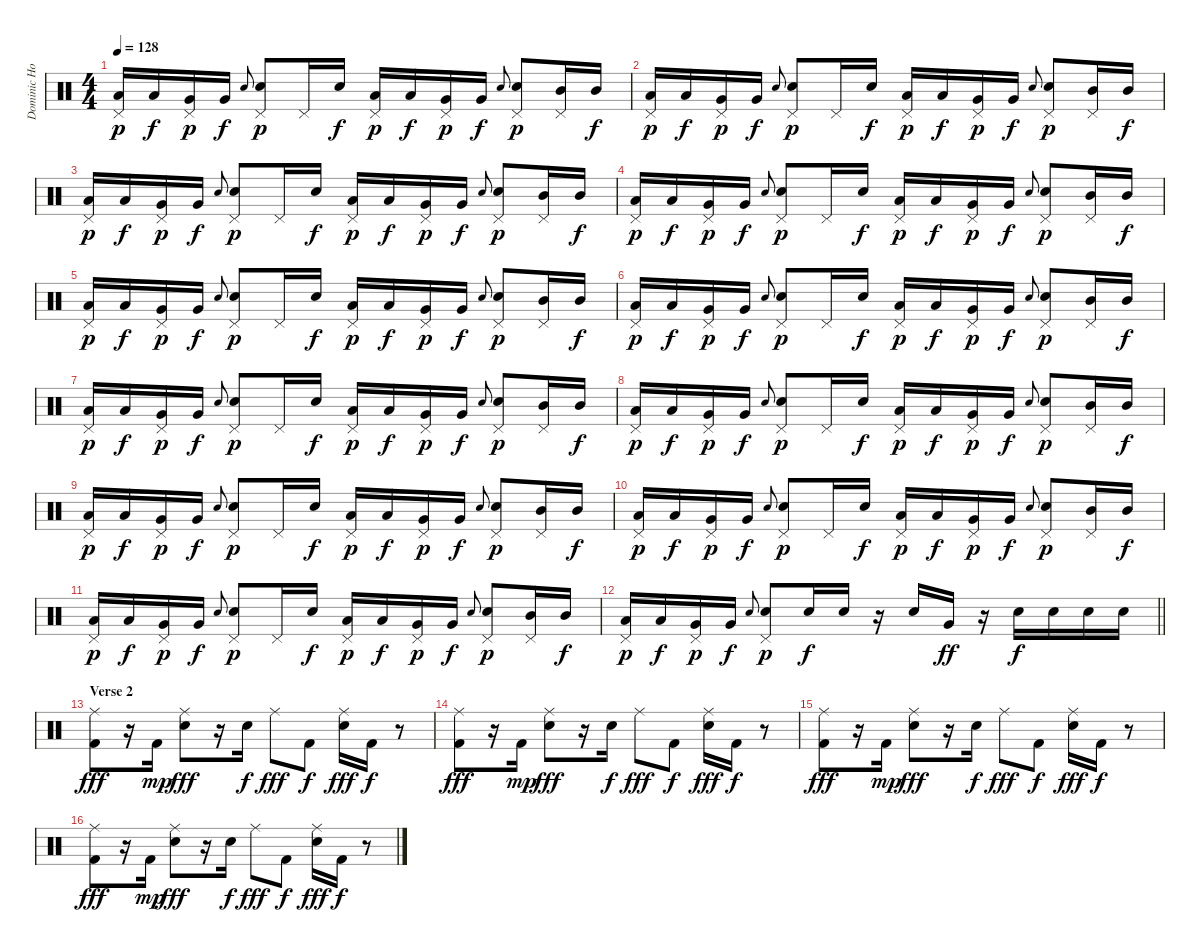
\track ("Dominic Howard (Drums)" "Dominic Ho") {instrument percussion}
\staff {score}
\articulation defaults
\ts (4 4)
\tempo 128
\clef neutral
\ks c
("Pedal Hi-Hat (hit)" "Low Tom (hit)").16{dy p} "Low Tom (hit)".16{dy f} ("Pedal Hi-Hat (hit)" "Very Low Tom (hit)").16{dy p} "Very Low Tom (hit)".16{dy f} "Electric Snare (hit)".8{gr onbeat} ("Pedal Hi-Hat (hit)" "Electric Snare (hit)").8{dy p} "Pedal Hi-Hat (hit)".16 "Electric Snare (hit)".16{dy f} ("Pedal Hi-Hat (hit)" "Low Tom (hit)").16{dy p} "Low Tom (hit)".16{dy f} ("Pedal Hi-Hat (hit)" "Very Low Tom (hit)").16{dy p} "Very Low Tom (hit)".16{dy f} "Electric Snare (hit)".8{gr onbeat} ("Pedal Hi-Hat (hit)" "Electric Snare (hit)").8{dy p} ("Pedal Hi-Hat (hit)" "Mid Tom (hit)").16 "Mid Tom (hit)".16{dy f} |
("Pedal Hi-Hat (hit)" "Low Tom (hit)").16{dy p} "Low Tom (hit)".16{dy f} ("Pedal Hi-Hat (hit)" "Very Low Tom (hit)").16{dy p} "Very Low Tom (hit)".16{dy f} "Electric Snare (hit)".8{gr onbeat} ("Pedal Hi-Hat (hit)" "Electric Snare (hit)").8{dy p} "Pedal Hi-Hat (hit)".16 "Electric Snare (hit)".16{dy f} ("Pedal Hi-Hat (hit)" "Low Tom (hit)").16{dy p} "Low Tom (hit)".16{dy f} ("Pedal Hi-Hat (hit)" "Very Low Tom (hit)").16{dy p} "Very Low Tom (hit)".16{dy f} "Electric Snare (hit)".8{gr onbeat} ("Pedal Hi-Hat (hit)" "Electric Snare (hit)").8{dy p} ("Pedal Hi-Hat (hit)" "Mid Tom (hit)").16 "Mid Tom (hit)".16{dy f} |
("Pedal Hi-Hat (hit)" "Low Tom (hit)").16{dy p} "Low Tom (hit)".16{dy f} ("Pedal Hi-Hat (hit)" "Very Low Tom (hit)").16{dy p} "Very Low Tom (hit)".16{dy f} "Electric Snare (hit)".8{gr onbeat} ("Pedal Hi-Hat (hit)" "Electric Snare (hit)").8{dy p} "Pedal Hi-Hat (hit)".16 "Electric Snare (hit)".16{dy f} ("Pedal Hi-Hat (hit)" "Low Tom (hit)").16{dy p} "Low Tom (hit)".16{dy f} ("Pedal Hi-Hat (hit)" "Very Low Tom (hit)").16{dy p} "Very Low Tom (hit)".16{dy f} "Electric Snare (hit)".8{gr onbeat} ("Pedal Hi-Hat (hit)" "Electric Snare (hit)").8{dy p} ("Pedal Hi-Hat (hit)" "Mid Tom (hit)").16 "Mid Tom (hit)".16{dy f} |
("Pedal Hi-Hat (hit)" "Low Tom (hit)").16{dy p} "Low Tom (hit)".16{dy f} ("Pedal Hi-Hat (hit)" "Very Low Tom (hit)").16{dy p} "Very Low Tom (hit)".16{dy f} "Electric Snare (hit)".8{gr onbeat} ("Pedal Hi-Hat (hit)" "Electric Snare (hit)").8{dy p} "Pedal Hi-Hat (hit)".16 "Electric Snare (hit)".16{dy f} ("Pedal Hi-Hat (hit)" "Low Tom (hit)").16{dy p} "Low Tom (hit)".16{dy f} ("Pedal Hi-Hat (hit)" "Very Low Tom (hit)").16{dy p} "Very Low Tom (hit)".16{dy f} "Electric Snare (hit)".8{gr onbeat} ("Pedal Hi-Hat (hit)" "Electric Snare (hit)").8{dy p} ("Pedal Hi-Hat (hit)" "Mid Tom (hit)").16 "Mid Tom (hit)".16{dy f} |
("Pedal Hi-Hat (hit)" "Low Tom (hit)").16{dy p} "Low Tom (hit)".16{dy f} ("Pedal Hi-Hat (hit)" "Very Low Tom (hit)").16{dy p} "Very Low Tom (hit)".16{dy f} "Electric Snare (hit)".8{gr onbeat} ("Pedal Hi-Hat (hit)" "Electric Snare (hit)").8{dy p} "Pedal Hi-Hat (hit)".16 "Electric Snare (hit)".16{dy f} ("Pedal Hi-Hat (hit)" "Low Tom (hit)").16{dy p} "Low Tom (hit)".16{dy f} ("Pedal Hi-Hat (hit)" "Very Low Tom (hit)").16{dy p} "Very Low Tom (hit)".16{dy f} "Electric Snare (hit)".8{gr onbeat} ("Pedal Hi-Hat (hit)" "Electric Snare (hit)").8{dy p} ("Pedal Hi-Hat (hit)" "Mid Tom (hit)").16 "Mid Tom (hit)".16{dy f} |
("Pedal Hi-Hat (hit)" "Low Tom (hit)").16{dy p} "Low Tom (hit)".16{dy f} ("Pedal Hi-Hat (hit)" "Very Low Tom (hit)").16{dy p} "Very Low Tom (hit)".16{dy f} "Electric Snare (hit)".8{gr onbeat} ("Pedal Hi-Hat (hit)" "Electric Snare (hit)").8{dy p} "Pedal Hi-Hat (hit)".16 "Electric Snare (hit)".16{dy f} ("Pedal Hi-Hat (hit)" "Low Tom (hit)").16{dy p} "Low Tom (hit)".16{dy f} ("Pedal Hi-Hat (hit)" "Very Low Tom (hit)").16{dy p} "Very Low Tom (hit)".16{dy f} "Electric Snare (hit)".8{gr onbeat} ("Pedal Hi-Hat (hit)" "Electric Snare (hit)").8{dy p} ("Pedal Hi-Hat (hit)" "Mid Tom (hit)").16 "Mid Tom (hit)".16{dy f} |
("Pedal Hi-Hat (hit)" "Low Tom (hit)").16{dy p} "Low Tom (hit)".16{dy f} ("Pedal Hi-Hat (hit)" "Very Low Tom (hit)").16{dy p} "Very Low Tom (hit)".16{dy f} "Electric Snare (hit)".8{gr onbeat} ("Pedal Hi-Hat (hit)" "Electric Snare (hit)").8{dy p} "Pedal Hi-Hat (hit)".16 "Electric Snare (hit)".16{dy f} ("Pedal Hi-Hat (hit)" "Low Tom (hit)").16{dy p} "Low Tom (hit)".16{dy f} ("Pedal Hi-Hat (hit)" "Very Low Tom (hit)").16{dy p} "Very Low Tom (hit)".16{dy f} "Electric Snare (hit)".8{gr onbeat} ("Pedal Hi-Hat (hit)" "Electric Snare (hit)").8{dy p} ("Pedal Hi-Hat (hit)" "Mid Tom (hit)").16 "Mid Tom (hit)".16{dy f} |
("Pedal Hi-Hat (hit)" "Low Tom (hit)").16{dy p} "Low Tom (hit)".16{dy f} ("Pedal Hi-Hat (hit)" "Very Low Tom (hit)").16{dy p} "Very Low Tom (hit)".16{dy f} "Electric Snare (hit)".8{gr onbeat} ("Pedal Hi-Hat (hit)" "Electric Snare (hit)").8{dy p} "Pedal Hi-Hat (hit)".16 "Electric Snare (hit)".16{dy f} ("Pedal Hi-Hat (hit)" "Low Tom (hit)").16{dy p} "Low Tom (hit)".16{dy f} ("Pedal Hi-Hat (hit)" "Very Low Tom (hit)").16{dy p} "Very Low Tom (hit)".16{dy f} "Electric Snare (hit)".8{gr onbeat} ("Pedal Hi-Hat (hit)" "Electric Snare (hit)").8{dy p} ("Pedal Hi-Hat (hit)" "Mid Tom (hit)").16 "Mid Tom (hit)".16{dy f} |
("Pedal Hi-Hat (hit)" "Low Tom (hit)").16{dy p} "Low Tom (hit)".16{dy f} ("Pedal Hi-Hat (hit)" "Very Low Tom (hit)").16{dy p} "Very Low Tom (hit)".16{dy f} "Electric Snare (hit)".8{gr onbeat} ("Pedal Hi-Hat (hit)" "Electric Snare (hit)").8{dy p} "Pedal Hi-Hat (hit)".16 "Electric Snare (hit)".16{dy f} ("Pedal Hi-Hat (hit)" "Low Tom (hit)").16{dy p} "Low Tom (hit)".16{dy f} ("Pedal Hi-Hat (hit)" "Very Low Tom (hit)").16{dy p} "Very Low Tom (hit)".16{dy f} "Electric Snare (hit)".8{gr onbeat} ("Pedal Hi-Hat (hit)" "Electric Snare (hit)").8{dy p} ("Pedal Hi-Hat (hit)" "Mid Tom (hit)").16 "Mid Tom (hit)".16{dy f} |
("Pedal Hi-Hat (hit)" "Low Tom (hit)").16{dy p} "Low Tom (hit)".16{dy f} ("Pedal Hi-Hat (hit)" "Very Low Tom (hit)").16{dy p} "Very Low Tom (hit)".16{dy f} "Electric Snare (hit)".8{gr onbeat} ("Pedal Hi-Hat (hit)" "Electric Snare (hit)").8{dy p} "Pedal Hi-Hat (hit)".16 "Electric Snare (hit)".16{dy f} ("Pedal Hi-Hat (hit)" "Low Tom (hit)").16{dy p} "Low Tom (hit)".16{dy f} ("Pedal Hi-Hat (hit)" "Very Low Tom (hit)").16{dy p} "Very Low Tom (hit)".16{dy f} "Electric Snare (hit)".8{gr onbeat} ("Pedal Hi-Hat (hit)" "Electric Snare (hit)").8{dy p} ("Pedal Hi-Hat (hit)" "Mid Tom (hit)").16 "Mid Tom (hit)".16{dy f} |
("Pedal Hi-Hat (hit)" "Low Tom (hit)").16{dy p} "Low Tom (hit)".16{dy f} ("Pedal Hi-Hat (hit)" "Very Low Tom (hit)").16{dy p} "Very Low Tom (hit)".16{dy f} "Electric Snare (hit)".8{gr onbeat} ("Pedal Hi-Hat (hit)" "Electric Snare (hit)").8{dy p} "Pedal Hi-Hat (hit)".16 "Electric Snare (hit)".16{dy f} ("Pedal Hi-Hat (hit)" "Low Tom (hit)").16{dy p} "Low Tom (hit)".16{dy f} ("Pedal Hi-Hat (hit)" "Very Low Tom (hit)").16{dy p} "Very Low Tom (hit)".16{dy f} "Electric Snare (hit)".8{gr onbeat} ("Pedal Hi-Hat (hit)" "Electric Snare (hit)").8{dy p} ("Pedal Hi-Hat (hit)" "Mid Tom (hit)").16 "Mid Tom (hit)".16{dy f} |
\barLineRight lightlight
("Pedal Hi-Hat (hit)" "Low Tom (hit)").16{dy p} "Low Tom (hit)".16{dy f} ("Pedal Hi-Hat (hit)" "Very Low Tom (hit)").16{dy p} "Very Low Tom (hit)".16{dy f} "Electric Snare (hit)".8{gr onbeat} ("Pedal Hi-Hat (hit)" "Electric Snare (hit)").8{dy p} "Electric Snare (hit)".16{dy f} "Electric Snare (hit)".16 r.16 "Electric Snare (hit)".16 "Very Low Tom (hit)".16{dy ff} r.16 "Electric Snare (hit)".16{dy f} "Electric Snare (hit)".16 "Electric Snare (hit)".16 "Electric Snare (hit)".16 |
\section ("" "Verse 2")
("Ride (middle)" "Kick (hit) 2").8{dy fff} r.16 "Kick (hit) 2".16{dy mp} ("Ride (middle)" "Electric Snare (hit)").8{dy fff} r.16 "Electric Snare (hit)".16{dy f} "Ride (middle)".8{dy fff} "Kick (hit) 2".8{dy f} ("Ride (middle)" "Electric Snare (hit)").16{dy fff} "Kick (hit) 2".16{dy f} r.8 |
("Ride (middle)" "Kick (hit) 2").8{dy fff} r.16 "Kick (hit) 2".16{dy mp} ("Ride (middle)" "Electric Snare (hit)").8{dy fff} r.16 "Electric Snare (hit)".16{dy f} "Ride (middle)".8{dy fff} "Kick (hit) 2".8{dy f} ("Ride (middle)" "Electric Snare (hit)").16{dy fff} "Kick (hit) 2".16{dy f} r.8 |
("Ride (middle)" "Kick (hit) 2").8{dy fff} r.16 "Kick (hit) 2".16{dy mp} ("Ride (middle)" "Electric Snare (hit)").8{dy fff} r.16 "Electric Snare (hit)".16{dy f} "Ride (middle)".8{dy fff} "Kick (hit) 2".8{dy f} ("Ride (middle)" "Electric Snare (hit)").16{dy fff} "Kick (hit) 2".16{dy f} r.8 |
("Ride (middle)" "Kick (hit) 2").8{dy fff} r.16 "Kick (hit) 2".16{dy mp} ("Ride (middle)" "Electric Snare (hit)").8{dy fff} r.16 "Electric Snare (hit)".16{dy f} "Ride (middle)".8{dy fff} "Kick (hit) 2".8{dy f} ("Ride (middle)" "Electric Snare (hit)").16{dy fff} "Kick (hit) 2".16{dy f} r.8
